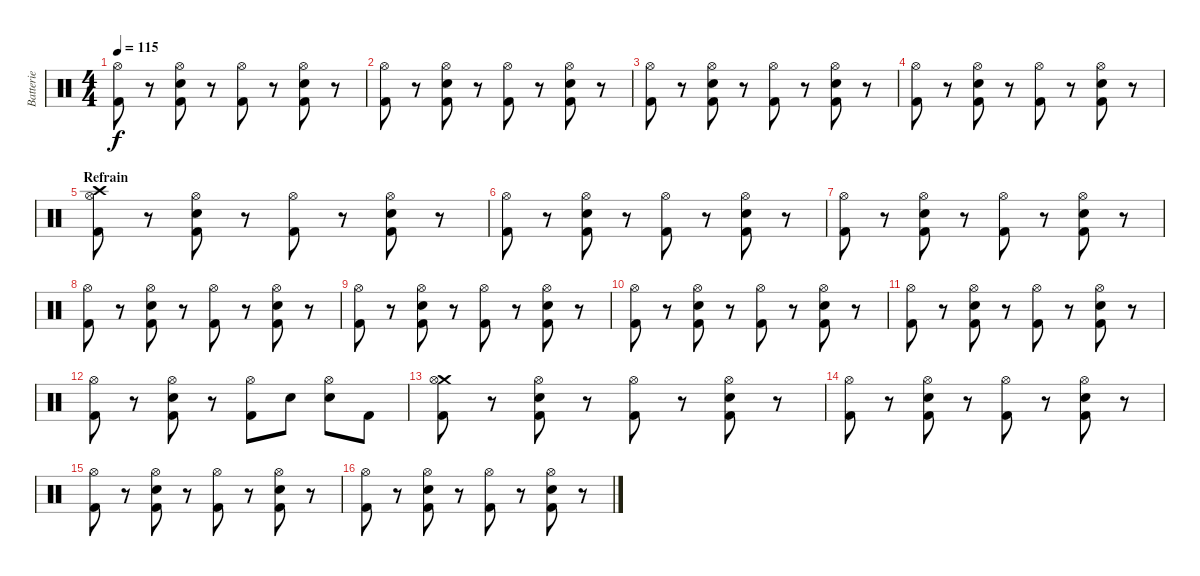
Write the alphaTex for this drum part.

\track ("Batterie" "Batterie") {instrument percussion}
\staff {score}
\articulation defaults
\ts (4 4)
\tempo 115
\clef neutral
\ks c
("Hi-Hat (open)" "Kick (hit) 2").8{dy f} r.8 ("Electric Snare (hit)" "Hi-Hat (open)" "Kick (hit) 2").8 r.8 ("Hi-Hat (open)" "Kick (hit) 2").8 r.8 ("Electric Snare (hit)" "Hi-Hat (open)" "Kick (hit) 2").8 r.8 |
("Hi-Hat (open)" "Kick (hit) 2").8 r.8 ("Electric Snare (hit)" "Hi-Hat (open)" "Kick (hit) 2").8 r.8 ("Hi-Hat (open)" "Kick (hit) 2").8 r.8 ("Electric Snare (hit)" "Hi-Hat (open)" "Kick (hit) 2").8 r.8 |
("Hi-Hat (open)" "Kick (hit) 2").8 r.8 ("Electric Snare (hit)" "Hi-Hat (open)" "Kick (hit) 2").8 r.8 ("Hi-Hat (open)" "Kick (hit) 2").8 r.8 ("Electric Snare (hit)" "Hi-Hat (open)" "Kick (hit) 2").8 r.8 |
("Hi-Hat (open)" "Kick (hit) 2").8 r.8 ("Electric Snare (hit)" "Hi-Hat (open)" "Kick (hit) 2").8 r.8 ("Hi-Hat (open)" "Kick (hit) 2").8 r.8 ("Electric Snare (hit)" "Hi-Hat (open)" "Kick (hit) 2").8 r.8 |
\section ("" "Refrain")
("Crash high (hit)" "Hi-Hat (open)" "Kick (hit) 2").8 r.8 ("Electric Snare (hit)" "Hi-Hat (open)" "Kick (hit) 2").8 r.8 ("Hi-Hat (open)" "Kick (hit) 2").8 r.8 ("Electric Snare (hit)" "Hi-Hat (open)" "Kick (hit) 2").8 r.8 |
("Hi-Hat (open)" "Kick (hit) 2").8 r.8 ("Electric Snare (hit)" "Hi-Hat (open)" "Kick (hit) 2").8 r.8 ("Hi-Hat (open)" "Kick (hit) 2").8 r.8 ("Electric Snare (hit)" "Hi-Hat (open)" "Kick (hit) 2").8 r.8 |
("Hi-Hat (open)" "Kick (hit) 2").8 r.8 ("Electric Snare (hit)" "Hi-Hat (open)" "Kick (hit) 2").8 r.8 ("Hi-Hat (open)" "Kick (hit) 2").8 r.8 ("Electric Snare (hit)" "Hi-Hat (open)" "Kick (hit) 2").8 r.8 |
("Hi-Hat (open)" "Kick (hit) 2").8 r.8 ("Electric Snare (hit)" "Hi-Hat (open)" "Kick (hit) 2").8 r.8 ("Hi-Hat (open)" "Kick (hit) 2").8 r.8 ("Electric Snare (hit)" "Hi-Hat (open)" "Kick (hit) 2").8 r.8 |
("Hi-Hat (open)" "Kick (hit) 2").8 r.8 ("Electric Snare (hit)" "Hi-Hat (open)" "Kick (hit) 2").8 r.8 ("Hi-Hat (open)" "Kick (hit) 2").8 r.8 ("Electric Snare (hit)" "Hi-Hat (open)" "Kick (hit) 2").8 r.8 |
("Hi-Hat (open)" "Kick (hit) 2").8 r.8 ("Electric Snare (hit)" "Hi-Hat (open)" "Kick (hit) 2").8 r.8 ("Hi-Hat (open)" "Kick (hit) 2").8 r.8 ("Electric Snare (hit)" "Hi-Hat (open)" "Kick (hit) 2").8 r.8 |
("Hi-Hat (open)" "Kick (hit) 2").8 r.8 ("Electric Snare (hit)" "Hi-Hat (open)" "Kick (hit) 2").8 r.8 ("Hi-Hat (open)" "Kick (hit) 2").8 r.8 ("Electric Snare (hit)" "Hi-Hat (open)" "Kick (hit) 2").8 r.8 |
("Hi-Hat (open)" "Kick (hit) 2").8 r.8 ("Electric Snare (hit)" "Hi-Hat (open)" "Kick (hit) 2").8 r.8 ("Hi-Hat (open)" "Kick (hit) 2").8 "Electric Snare (hit)".8 ("Electric Snare (hit)" "Hi-Hat (open)").8 "Kick (hit) 2".8 |
("Crash medium (hit)" "Hi-Hat (open)" "Kick (hit) 2").8 r.8 ("Electric Snare (hit)" "Hi-Hat (open)" "Kick (hit) 2").8 r.8 ("Hi-Hat (open)" "Kick (hit) 2").8 r.8 ("Electric Snare (hit)" "Hi-Hat (open)" "Kick (hit) 2").8 r.8 |
("Hi-Hat (open)" "Kick (hit) 2").8 r.8 ("Electric Snare (hit)" "Hi-Hat (open)" "Kick (hit) 2").8 r.8 ("Hi-Hat (open)" "Kick (hit) 2").8 r.8 ("Electric Snare (hit)" "Hi-Hat (open)" "Kick (hit) 2").8 r.8 |
("Hi-Hat (open)" "Kick (hit) 2").8 r.8 ("Electric Snare (hit)" "Hi-Hat (open)" "Kick (hit) 2").8 r.8 ("Hi-Hat (open)" "Kick (hit) 2").8 r.8 ("Electric Snare (hit)" "Hi-Hat (open)" "Kick (hit) 2").8 r.8 |
("Hi-Hat (open)" "Kick (hit) 2").8 r.8 ("Electric Snare (hit)" "Hi-Hat (open)" "Kick (hit) 2").8 r.8 ("Hi-Hat (open)" "Kick (hit) 2").8 r.8 ("Electric Snare (hit)" "Hi-Hat (open)" "Kick (hit) 2").8 r.8
